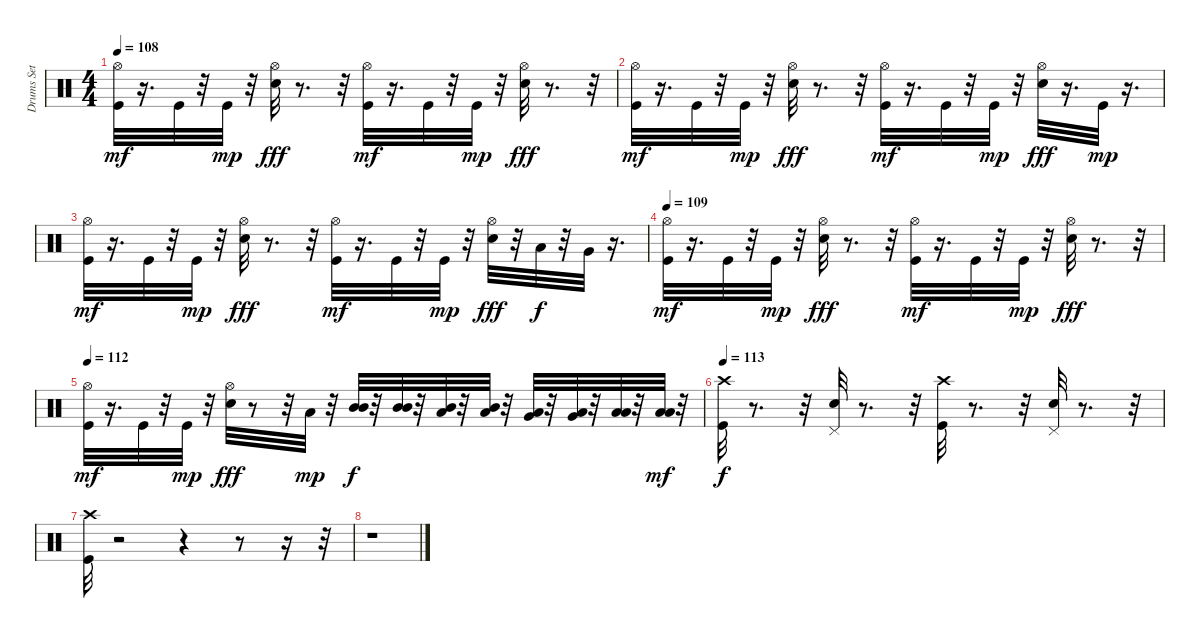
\track ("Drums Set" "Drums Set") {instrument percussion}
\staff {score}
\articulation defaults
\ts (4 4)
\tempo 108
\clef neutral
\ks c
("Hi-Hat (open)" "Kick (hit)").32{dy mf} r.16{d} "Kick (hit)".32 r.32 "Kick (hit)".32{dy mp} r.32 ("Hi-Hat (open)" "Snare (hit) 2").32{dy fff} r.8{d} r.32 ("Hi-Hat (open)" "Kick (hit)").32{dy mf} r.16{d} "Kick (hit)".32 r.32 "Kick (hit)".32{dy mp} r.32 ("Hi-Hat (open)" "Snare (hit) 2").32{dy fff} r.8{d} r.32 |
("Hi-Hat (open)" "Kick (hit)").32{dy mf} r.16{d} "Kick (hit)".32 r.32 "Kick (hit)".32{dy mp} r.32 ("Hi-Hat (open)" "Snare (hit) 2").32{dy fff} r.8{d} r.32 ("Hi-Hat (open)" "Kick (hit)").32{dy mf} r.16{d} "Kick (hit)".32 r.32 "Kick (hit)".32{dy mp} r.32 ("Hi-Hat (open)" "Snare (hit) 2").32{dy fff} r.16{d} "Kick (hit)".32{dy mp} r.16{d} |
("Hi-Hat (open)" "Kick (hit)").32{dy mf} r.16{d} "Kick (hit)".32 r.32 "Kick (hit)".32{dy mp} r.32 ("Hi-Hat (open)" "Snare (hit) 2").32{dy fff} r.8{d} r.32 ("Hi-Hat (open)" "Kick (hit)").32{dy mf} r.16{d} "Kick (hit)".32 r.32 "Kick (hit)".32{dy mp} r.32 ("Hi-Hat (open)" "Snare (hit) 2").32{dy fff} r.32 "Low Tom (hit)".32{dy f} r.32 "Very Low Tom (hit)".32 r.16{d} |
\tempo 109
("Hi-Hat (open)" "Kick (hit)").32{dy mf} r.16{d} "Kick (hit)".32 r.32 "Kick (hit)".32{dy mp} r.32 ("Hi-Hat (open)" "Snare (hit) 2").32{dy fff} r.8{d} r.32 ("Hi-Hat (open)" "Kick (hit)").32{dy mf} r.16{d} "Kick (hit)".32 r.32 "Kick (hit)".32{dy mp} r.32 ("Hi-Hat (open)" "Snare (hit) 2").32{dy fff} r.8{d} r.32 |
\tempo 112
("Hi-Hat (open)" "Kick (hit)").32{dy mf} r.16{d} "Kick (hit)".32 r.32 "Kick (hit)".32{dy mp} r.32 ("Hi-Hat (open)" "Snare (hit) 2").32{dy fff} r.8 r.32 "Low Tom (hit)".32{dy mp} r.32 ("Mid Tom (hit)" "Mid Tom (hit)").32{dy f} r.32 ("Mid Tom (hit)" "Mid Tom (hit)").32 r.32 ("Low Tom (hit)" "Mid Tom (hit)").32 r.32 ("Low Tom (hit)" "Mid Tom (hit)").32 r.32 ("Very Low Tom (hit)" "Low Tom (hit)").32 r.32 ("Very Low Tom (hit)" "Low Tom (hit)").32 r.32 ("Low Floor Tom (hit)" "Low Tom (hit)").32 r.32 ("Low Floor Tom (hit)" "Low Tom (hit)").32{dy mf} r.32 |
\tempo 113
("Kick (hit)" "Crash high (hit)").32{dy f} r.8{d} r.32 ("Pedal Hi-Hat (hit)" "Snare (hit) 2").32 r.8{d} r.32 ("Kick (hit)" "Crash high (hit)").32 r.8{d} r.32 ("Pedal Hi-Hat (hit)" "Snare (hit) 2").32 r.8{d} r.32 |
("Crash high (hit)" "Kick (hit)").32 r.2 r.4 r.8 r.16 r.32 |
r.1
